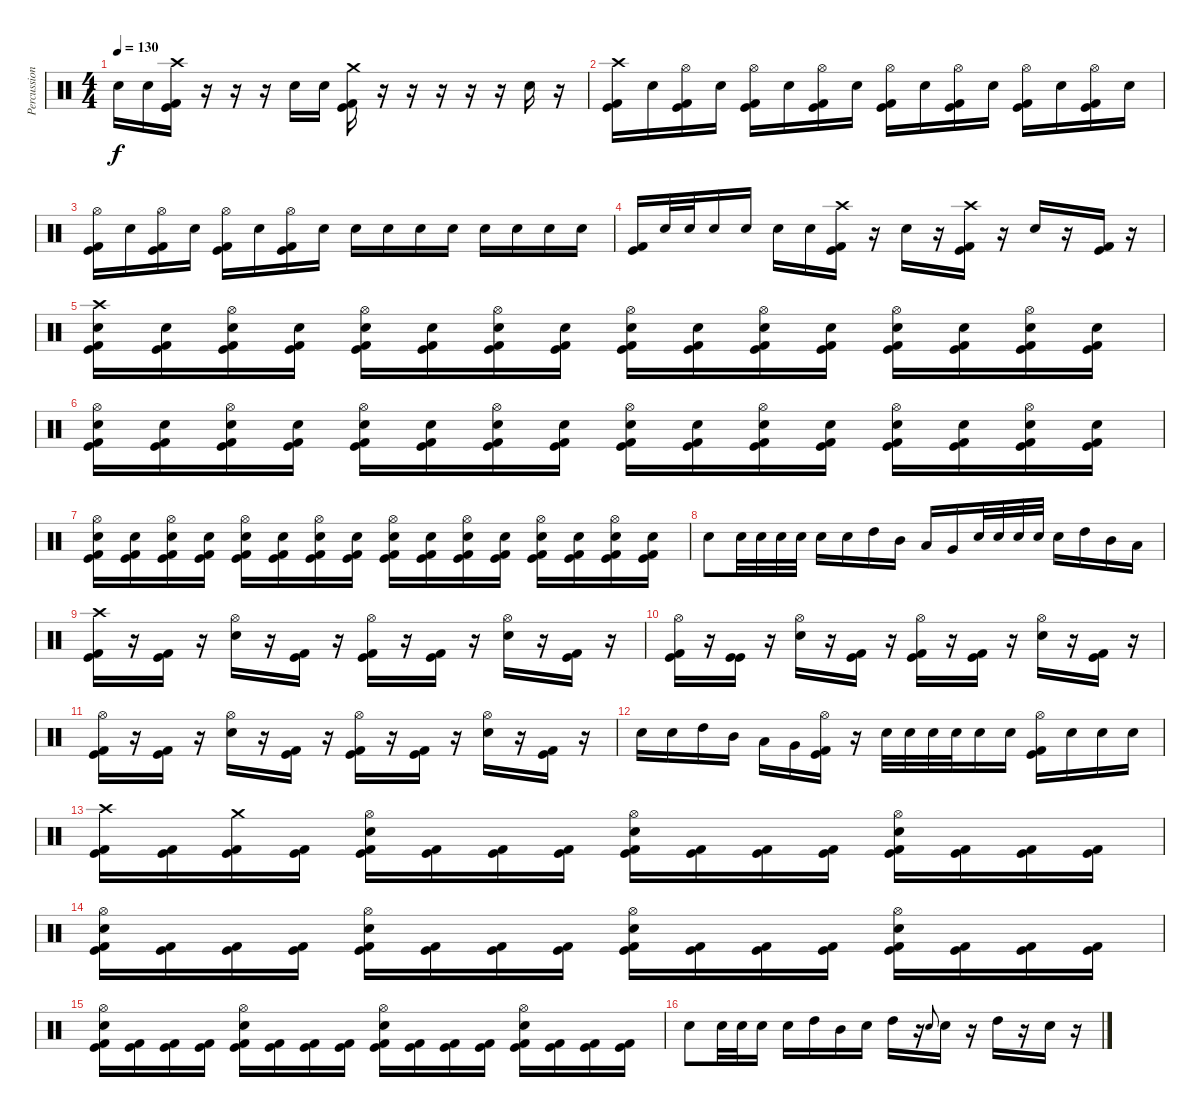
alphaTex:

\track ("Percussion" "Percussion") {instrument percussion}
\staff {score}
\articulation defaults
\ts (4 4)
\tempo 130
\clef neutral
\ks c "Electric Snare (hit)".16{dy f} "Electric Snare (hit)".16
("Crash high (hit)" "Kick (hit)" "Kick (hit) 2").16 r.16 r.16 r.16 "Electric Snare (hit)".16 "Electric Snare (hit)".16 ("Crash medium (hit)" "Kick (hit)" "Kick (hit) 2").16 r.16 r.16 r.16 r.16 r.16 "Electric Snare (hit)".16 r.16 |
("Crash high (hit)" "Kick (hit)" "Kick (hit) 2").16 "Electric Snare (hit)".16 ("Hi-Hat (open)" "Kick (hit)" "Kick (hit) 2").16 "Electric Snare (hit)".16 ("Hi-Hat (open)" "Kick (hit)" "Kick (hit) 2").16 "Electric Snare (hit)".16 ("Hi-Hat (open)" "Kick (hit)" "Kick (hit) 2").16 "Electric Snare (hit)".16 ("Hi-Hat (open)" "Kick (hit)" "Kick (hit) 2").16 "Electric Snare (hit)".16 ("Hi-Hat (open)" "Kick (hit)" "Kick (hit) 2").16 "Electric Snare (hit)".16 ("Hi-Hat (open)" "Kick (hit)" "Kick (hit) 2").16 "Electric Snare (hit)".16 ("Hi-Hat (open)" "Kick (hit)" "Kick (hit) 2").16 "Electric Snare (hit)".16 |
("Hi-Hat (open)" "Kick (hit)" "Kick (hit) 2").16 "Electric Snare (hit)".16 ("Hi-Hat (open)" "Kick (hit)" "Kick (hit) 2").16 "Electric Snare (hit)".16 ("Hi-Hat (open)" "Kick (hit)" "Kick (hit) 2").16 "Electric Snare (hit)".16 ("Hi-Hat (open)" "Kick (hit)" "Kick (hit) 2").16 "Electric Snare (hit)".16 "Electric Snare (hit)".16 "Electric Snare (hit)".16 "Electric Snare (hit)".16 "Electric Snare (hit)".16 "Electric Snare (hit)".16 "Electric Snare (hit)".16 "Electric Snare (hit)".16 "Electric Snare (hit)".16 |
("Kick (hit)" "Kick (hit) 2").16 "Electric Snare (hit)".32 "Electric Snare (hit)".32 "Electric Snare (hit)".16 "Electric Snare (hit)".16 "Electric Snare (hit)".16 "Electric Snare (hit)".16 ("Crash high (hit)" "Kick (hit)" "Kick (hit) 2").16 r.16 "Electric Snare (hit)".16 r.16 ("Crash high (hit)" "Kick (hit)" "Kick (hit) 2").16 r.16 "Electric Snare (hit)".16 r.16 ("Kick (hit)" "Kick (hit) 2").16 r.16 |
("Crash high (hit)" "Electric Snare (hit)" "Kick (hit)" "Kick (hit) 2").16 ("Electric Snare (hit)" "Kick (hit)" "Kick (hit) 2").16 ("Hi-Hat (open)" "Electric Snare (hit)" "Kick (hit)" "Kick (hit) 2").16 ("Electric Snare (hit)" "Kick (hit)" "Kick (hit) 2").16 ("Hi-Hat (open)" "Electric Snare (hit)" "Kick (hit)" "Kick (hit) 2").16 ("Electric Snare (hit)" "Kick (hit)" "Kick (hit) 2").16 ("Hi-Hat (open)" "Electric Snare (hit)" "Kick (hit)" "Kick (hit) 2").16 ("Electric Snare (hit)" "Kick (hit)" "Kick (hit) 2").16 ("Hi-Hat (open)" "Electric Snare (hit)" "Kick (hit)" "Kick (hit) 2").16 ("Electric Snare (hit)" "Kick (hit)" "Kick (hit) 2").16 ("Hi-Hat (open)" "Electric Snare (hit)" "Kick (hit)" "Kick (hit) 2").16 ("Electric Snare (hit)" "Kick (hit)" "Kick (hit) 2").16 ("Hi-Hat (open)" "Electric Snare (hit)" "Kick (hit)" "Kick (hit) 2").16 ("Electric Snare (hit)" "Kick (hit)" "Kick (hit) 2").16 ("Hi-Hat (open)" "Electric Snare (hit)" "Kick (hit)" "Kick (hit) 2").16 ("Electric Snare (hit)" "Kick (hit)" "Kick (hit) 2").16 |
("Hi-Hat (open)" "Electric Snare (hit)" "Kick (hit)" "Kick (hit) 2").16 ("Electric Snare (hit)" "Kick (hit)" "Kick (hit) 2").16 ("Hi-Hat (open)" "Electric Snare (hit)" "Kick (hit)" "Kick (hit) 2").16 ("Electric Snare (hit)" "Kick (hit)" "Kick (hit) 2").16 ("Hi-Hat (open)" "Electric Snare (hit)" "Kick (hit)" "Kick (hit) 2").16 ("Electric Snare (hit)" "Kick (hit)" "Kick (hit) 2").16 ("Hi-Hat (open)" "Electric Snare (hit)" "Kick (hit)" "Kick (hit) 2").16 ("Electric Snare (hit)" "Kick (hit)" "Kick (hit) 2").16 ("Hi-Hat (open)" "Electric Snare (hit)" "Kick (hit)" "Kick (hit) 2").16 ("Electric Snare (hit)" "Kick (hit)" "Kick (hit) 2").16 ("Hi-Hat (open)" "Electric Snare (hit)" "Kick (hit)" "Kick (hit) 2").16 ("Electric Snare (hit)" "Kick (hit)" "Kick (hit) 2").16 ("Hi-Hat (open)" "Electric Snare (hit)" "Kick (hit)" "Kick (hit) 2").16 ("Electric Snare (hit)" "Kick (hit)" "Kick (hit) 2").16 ("Hi-Hat (open)" "Electric Snare (hit)" "Kick (hit)" "Kick (hit) 2").16 ("Electric Snare (hit)" "Kick (hit)" "Kick (hit) 2").16 |
("Hi-Hat (open)" "Electric Snare (hit)" "Kick (hit)" "Kick (hit) 2").16 ("Electric Snare (hit)" "Kick (hit)" "Kick (hit) 2").16 ("Hi-Hat (open)" "Electric Snare (hit)" "Kick (hit)" "Kick (hit) 2").16 ("Electric Snare (hit)" "Kick (hit)" "Kick (hit) 2").16 ("Hi-Hat (open)" "Electric Snare (hit)" "Kick (hit)" "Kick (hit) 2").16 ("Electric Snare (hit)" "Kick (hit)" "Kick (hit) 2").16 ("Hi-Hat (open)" "Electric Snare (hit)" "Kick (hit)" "Kick (hit) 2").16 ("Electric Snare (hit)" "Kick (hit)" "Kick (hit) 2").16 ("Hi-Hat (open)" "Electric Snare (hit)" "Kick (hit)" "Kick (hit) 2").16 ("Electric Snare (hit)" "Kick (hit)" "Kick (hit) 2").16 ("Hi-Hat (open)" "Electric Snare (hit)" "Kick (hit)" "Kick (hit) 2").16 ("Electric Snare (hit)" "Kick (hit)" "Kick (hit) 2").16 ("Hi-Hat (open)" "Electric Snare (hit)" "Kick (hit)" "Kick (hit) 2").16 ("Electric Snare (hit)" "Kick (hit)" "Kick (hit) 2").16 ("Hi-Hat (open)" "Electric Snare (hit)" "Kick (hit)" "Kick (hit) 2").16 ("Electric Snare (hit)" "Kick (hit)" "Kick (hit) 2").16 |
"Electric Snare (hit)".8 "Electric Snare (hit)".32 "Electric Snare (hit)".32 "Electric Snare (hit)".32 "Electric Snare (hit)".32 "Electric Snare (hit)".16 "Electric Snare (hit)".16 "High Tom (hit)".16 "Mid Tom (hit)".16 "Low Tom (hit)".16 "Very Low Tom (hit)".16 "Electric Snare (hit)".32 "Electric Snare (hit)".32 "Electric Snare (hit)".32 "Electric Snare (hit)".32 "Electric Snare (hit)".16 "High Tom (hit)".16 "Mid Tom (hit)".16 "Low Tom (hit)".16 |
("Crash high (hit)" "Kick (hit)" "Kick (hit) 2").16 r.16 ("Kick (hit)" "Kick (hit) 2").16 r.16 ("Hi-Hat (open)" "Electric Snare (hit)").16 r.16 ("Kick (hit)" "Kick (hit) 2").16 r.16 ("Hi-Hat (open)" "Kick (hit)" "Kick (hit) 2").16 r.16 ("Kick (hit)" "Kick (hit) 2").16 r.16 ("Hi-Hat (open)" "Electric Snare (hit)").16 r.16 ("Kick (hit)" "Kick (hit) 2").16 r.16 |
("Hi-Hat (open)" "Kick (hit)" "Kick (hit) 2").16 r.16 ("Kick (hit)" "Kick (hit)").16 r.16 ("Hi-Hat (open)" "Electric Snare (hit)").16 r.16 ("Kick (hit)" "Kick (hit) 2").16 r.16 ("Hi-Hat (open)" "Kick (hit)" "Kick (hit) 2").16 r.16 ("Kick (hit)" "Kick (hit) 2").16 r.16 ("Hi-Hat (open)" "Electric Snare (hit)").16 r.16 ("Kick (hit)" "Kick (hit) 2").16 r.16 |
("Hi-Hat (open)" "Kick (hit)" "Kick (hit) 2").16 r.16 ("Kick (hit)" "Kick (hit) 2").16 r.16 ("Hi-Hat (open)" "Electric Snare (hit)").16 r.16 ("Kick (hit)" "Kick (hit) 2").16 r.16 ("Hi-Hat (open)" "Kick (hit)" "Kick (hit) 2").16 r.16 ("Kick (hit)" "Kick (hit) 2").16 r.16 ("Hi-Hat (open)" "Electric Snare (hit)").16 r.16 ("Kick (hit)" "Kick (hit) 2").16 r.16 |
"Electric Snare (hit)".16 "Electric Snare (hit)".16 "High Tom (hit)".16 "Mid Tom (hit)".16 "Low Tom (hit)".16 "Very Low Tom (hit)".16 ("Hi-Hat (open)" "Kick (hit)" "Kick (hit) 2").16 r.16 "Electric Snare (hit)".32 "Electric Snare (hit)".32 "Electric Snare (hit)".32 "Electric Snare (hit)".32 "Electric Snare (hit)".16 "Electric Snare (hit)".16 ("Hi-Hat (open)" "Kick (hit)" "Kick (hit) 2").16 "Electric Snare (hit)".16 "Electric Snare (hit)".16 "Electric Snare (hit)".16 |
("Crash high (hit)" "Kick (hit)" "Kick (hit) 2").16 ("Kick (hit)" "Kick (hit) 2").16 ("Crash medium (hit)" "Kick (hit)" "Kick (hit) 2").16 ("Kick (hit)" "Kick (hit) 2").16 ("Hi-Hat (open)" "Electric Snare (hit)" "Kick (hit)" "Kick (hit) 2").16 ("Kick (hit)" "Kick (hit) 2").16 ("Kick (hit)" "Kick (hit) 2").16 ("Kick (hit)" "Kick (hit) 2").16 ("Hi-Hat (open)" "Electric Snare (hit)" "Kick (hit)" "Kick (hit) 2").16 ("Kick (hit)" "Kick (hit) 2").16 ("Kick (hit)" "Kick (hit) 2").16 ("Kick (hit)" "Kick (hit) 2").16 ("Hi-Hat (open)" "Electric Snare (hit)" "Kick (hit)" "Kick (hit) 2").16 ("Kick (hit)" "Kick (hit) 2").16 ("Kick (hit)" "Kick (hit) 2").16 ("Kick (hit)" "Kick (hit) 2").16 |
("Hi-Hat (open)" "Electric Snare (hit)" "Kick (hit)" "Kick (hit) 2").16 ("Kick (hit)" "Kick (hit) 2").16 ("Kick (hit)" "Kick (hit) 2").16 ("Kick (hit)" "Kick (hit) 2").16 ("Hi-Hat (open)" "Electric Snare (hit)" "Kick (hit)" "Kick (hit) 2").16 ("Kick (hit)" "Kick (hit) 2").16 ("Kick (hit)" "Kick (hit) 2").16 ("Kick (hit)" "Kick (hit) 2").16 ("Hi-Hat (open)" "Electric Snare (hit)" "Kick (hit)" "Kick (hit) 2").16 ("Kick (hit)" "Kick (hit) 2").16 ("Kick (hit)" "Kick (hit) 2").16 ("Kick (hit)" "Kick (hit) 2").16 ("Hi-Hat (open)" "Electric Snare (hit)" "Kick (hit)" "Kick (hit) 2").16 ("Kick (hit)" "Kick (hit) 2").16 ("Kick (hit)" "Kick (hit) 2").16 ("Kick (hit)" "Kick (hit) 2").16 |
("Hi-Hat (open)" "Electric Snare (hit)" "Kick (hit)" "Kick (hit) 2").16 ("Kick (hit)" "Kick (hit) 2").16 ("Kick (hit)" "Kick (hit) 2").16 ("Kick (hit)" "Kick (hit) 2").16 ("Hi-Hat (open)" "Electric Snare (hit)" "Kick (hit)" "Kick (hit) 2").16 ("Kick (hit)" "Kick (hit) 2").16 ("Kick (hit)" "Kick (hit) 2").16 ("Kick (hit)" "Kick (hit) 2").16 ("Hi-Hat (open)" "Electric Snare (hit)" "Kick (hit)" "Kick (hit) 2").16 ("Kick (hit)" "Kick (hit) 2").16 ("Kick (hit)" "Kick (hit) 2").16 ("Kick (hit)" "Kick (hit) 2").16 ("Hi-Hat (open)" "Electric Snare (hit)" "Kick (hit)" "Kick (hit) 2").16 ("Kick (hit)" "Kick (hit) 2").16 ("Kick (hit)" "Kick (hit) 2").16 ("Kick (hit)" "Kick (hit) 2").16 |
"Electric Snare (hit)".8 "Electric Snare (hit)".32 "Electric Snare (hit)".32 "Electric Snare (hit)".16 "Electric Snare (hit)".16 "High Tom (hit)".16 "Mid Tom (hit)".16 "Electric Snare (hit)".16 "High Tom (hit)".16 r.16 "Electric Snare (hit)"{x}.8{gr onbeat} "Electric Snare (hit)".16 r.16 "High Tom (hit)".16 r.16 "Electric Snare (hit)".16 r.16
